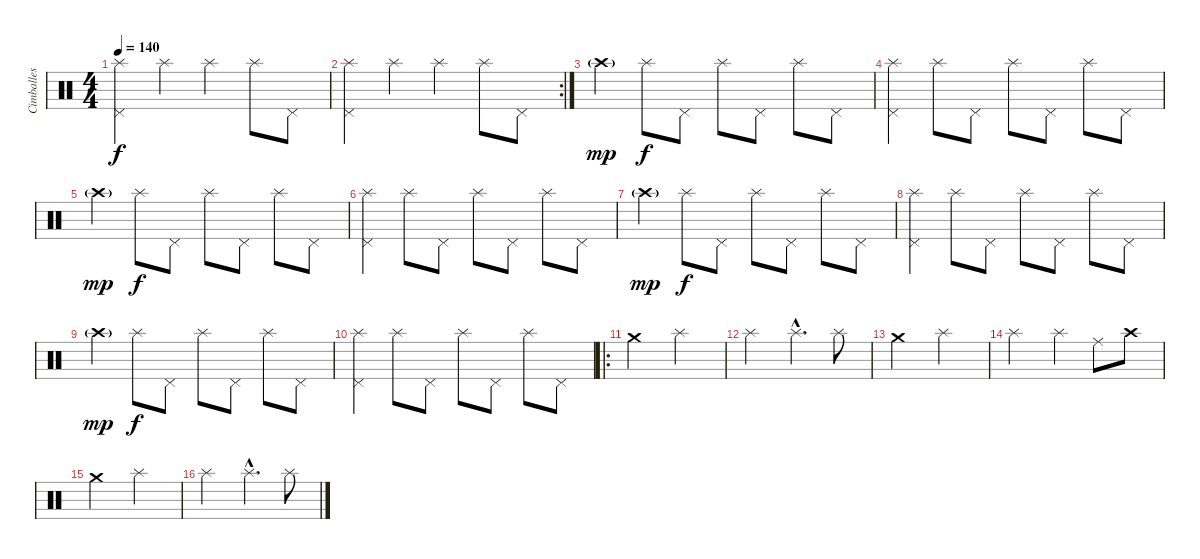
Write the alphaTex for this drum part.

\track ("Cimballes" "Cimballes") {instrument percussion}
\staff {score}
\articulation defaults
\ts (4 4)
\tempo 140
\clef neutral
\ks c
("Splash (hit)" "Pedal Hi-Hat (hit)").4{dy f} "Splash (hit)".4 "Splash (hit)".4 "Splash (hit)".8 "Pedal Hi-Hat (hit)".8 |
\rc 2
("Splash (hit)" "Pedal Hi-Hat (hit)").4 "Splash (hit)".4 "Splash (hit)".4 "Splash (hit)".8 "Pedal Hi-Hat (hit)".8 |
"Crash high (hit)"{g}.4{dy mp} "Splash (hit)".8{dy f} "Pedal Hi-Hat (hit)".8 "Splash (hit)".8 "Pedal Hi-Hat (hit)".8 "Splash (hit)".8 "Pedal Hi-Hat (hit)".8 |
("Splash (hit)" "Pedal Hi-Hat (hit)").4 "Splash (hit)".8 "Pedal Hi-Hat (hit)".8 "Splash (hit)".8 "Pedal Hi-Hat (hit)".8 "Splash (hit)".8 "Pedal Hi-Hat (hit)".8 |
"Crash high (hit)"{g}.4{dy mp} "Splash (hit)".8{dy f} "Pedal Hi-Hat (hit)".8 "Splash (hit)".8 "Pedal Hi-Hat (hit)".8 "Splash (hit)".8 "Pedal Hi-Hat (hit)".8 |
("Splash (hit)" "Pedal Hi-Hat (hit)").4 "Splash (hit)".8 "Pedal Hi-Hat (hit)".8 "Splash (hit)".8 "Pedal Hi-Hat (hit)".8 "Splash (hit)".8 "Pedal Hi-Hat (hit)".8 |
"Crash high (hit)"{g}.4{dy mp} "Splash (hit)".8{dy f} "Pedal Hi-Hat (hit)".8 "Splash (hit)".8 "Pedal Hi-Hat (hit)".8 "Splash (hit)".8 "Pedal Hi-Hat (hit)".8 |
("Splash (hit)" "Pedal Hi-Hat (hit)").4 "Splash (hit)".8 "Pedal Hi-Hat (hit)".8 "Splash (hit)".8 "Pedal Hi-Hat (hit)".8 "Splash (hit)".8 "Pedal Hi-Hat (hit)".8 |
"Crash high (hit)"{g}.4{dy mp} "Splash (hit)".8{dy f} "Pedal Hi-Hat (hit)".8 "Splash (hit)".8 "Pedal Hi-Hat (hit)".8 "Splash (hit)".8 "Pedal Hi-Hat (hit)".8 |
("Splash (hit)" "Pedal Hi-Hat (hit)").4 "Splash (hit)".8 "Pedal Hi-Hat (hit)".8 "Splash (hit)".8 "Pedal Hi-Hat (hit)".8 "Splash (hit)".8 "Pedal Hi-Hat (hit)".8 |
\ro "Crash medium (hit)".2 "Splash (hit)".2
|
"Splash (hit)".2 "Splash (hit)"{hac}.4{d} "Splash (hit)".8 |
"Crash medium (hit)".2 "Splash (hit)".2 |
"Splash (hit)".2 "Splash (hit)".4 "Ride (middle)".8 "Crash high (hit)".8 |
"Crash medium (hit)".2 "Splash (hit)".2 |
"Splash (hit)".2 "Splash (hit)"{hac}.4{d} "Splash (hit)".8
